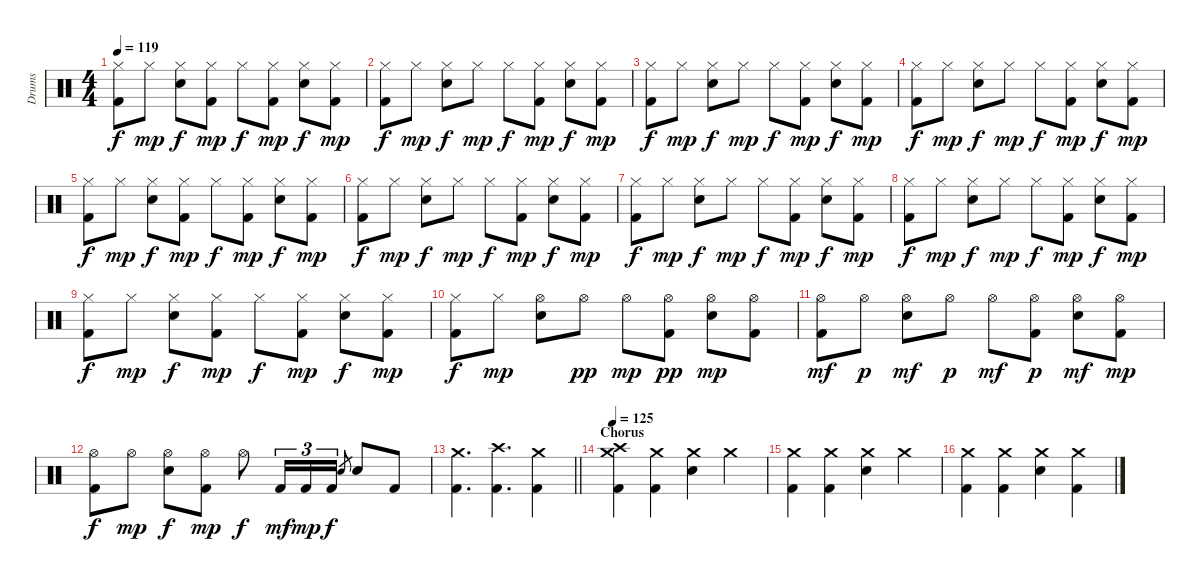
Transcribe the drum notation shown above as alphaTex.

\track ("Drums" "Drums") {instrument percussion}
\staff {score}
\articulation defaults
\ts (4 4)
\tempo 119
\clef neutral
\ks c
("Hi-Hat (closed)" "Kick (hit) 2").8{dy f} "Hi-Hat (closed)".8{dy mp} ("Hi-Hat (closed)" "Electric Snare (hit)").8{dy f} ("Hi-Hat (closed)" "Kick (hit) 2").8{dy mp} "Hi-Hat (closed)".8{dy f} ("Hi-Hat (closed)" "Kick (hit) 2").8{dy mp} ("Hi-Hat (closed)" "Electric Snare (hit)").8{dy f} ("Hi-Hat (closed)" "Kick (hit) 2").8{dy mp} |
("Hi-Hat (closed)" "Kick (hit) 2").8{dy f} "Hi-Hat (closed)".8{dy mp} ("Hi-Hat (closed)" "Electric Snare (hit)").8{dy f} "Hi-Hat (closed)".8{dy mp} "Hi-Hat (closed)".8{dy f} ("Hi-Hat (closed)" "Kick (hit) 2").8{dy mp} ("Hi-Hat (closed)" "Electric Snare (hit)").8{dy f} ("Hi-Hat (closed)" "Kick (hit) 2").8{dy mp} |
("Hi-Hat (closed)" "Kick (hit) 2").8{dy f} "Hi-Hat (closed)".8{dy mp} ("Hi-Hat (closed)" "Electric Snare (hit)").8{dy f} "Hi-Hat (closed)".8{dy mp} "Hi-Hat (closed)".8{dy f} ("Hi-Hat (closed)" "Kick (hit) 2").8{dy mp} ("Hi-Hat (closed)" "Electric Snare (hit)").8{dy f} ("Hi-Hat (closed)" "Kick (hit) 2").8{dy mp} |
("Hi-Hat (closed)" "Kick (hit) 2").8{dy f} "Hi-Hat (closed)".8{dy mp} ("Hi-Hat (closed)" "Electric Snare (hit)").8{dy f} "Hi-Hat (closed)".8{dy mp} "Hi-Hat (closed)".8{dy f} ("Hi-Hat (closed)" "Kick (hit) 2").8{dy mp} ("Hi-Hat (closed)" "Electric Snare (hit)").8{dy f} ("Hi-Hat (closed)" "Kick (hit) 2").8{dy mp} |
("Hi-Hat (closed)" "Kick (hit) 2").8{dy f} "Hi-Hat (closed)".8{dy mp} ("Hi-Hat (closed)" "Electric Snare (hit)").8{dy f} ("Hi-Hat (closed)" "Kick (hit) 2").8{dy mp} "Hi-Hat (closed)".8{dy f} ("Hi-Hat (closed)" "Kick (hit) 2").8{dy mp} ("Hi-Hat (closed)" "Electric Snare (hit)").8{dy f} ("Hi-Hat (closed)" "Kick (hit) 2").8{dy mp} |
("Hi-Hat (closed)" "Kick (hit) 2").8{dy f} "Hi-Hat (closed)".8{dy mp} ("Hi-Hat (closed)" "Electric Snare (hit)").8{dy f} "Hi-Hat (closed)".8{dy mp} "Hi-Hat (closed)".8{dy f} ("Hi-Hat (closed)" "Kick (hit) 2").8{dy mp} ("Hi-Hat (closed)" "Electric Snare (hit)").8{dy f} ("Hi-Hat (closed)" "Kick (hit) 2").8{dy mp} |
("Hi-Hat (closed)" "Kick (hit) 2").8{dy f} "Hi-Hat (closed)".8{dy mp} ("Hi-Hat (closed)" "Electric Snare (hit)").8{dy f} "Hi-Hat (closed)".8{dy mp} "Hi-Hat (closed)".8{dy f} ("Hi-Hat (closed)" "Kick (hit) 2").8{dy mp} ("Hi-Hat (closed)" "Electric Snare (hit)").8{dy f} ("Hi-Hat (closed)" "Kick (hit) 2").8{dy mp} |
("Hi-Hat (closed)" "Kick (hit) 2").8{dy f} "Hi-Hat (closed)".8{dy mp} ("Hi-Hat (closed)" "Electric Snare (hit)").8{dy f} "Hi-Hat (closed)".8{dy mp} "Hi-Hat (closed)".8{dy f} ("Hi-Hat (closed)" "Kick (hit) 2").8{dy mp} ("Hi-Hat (closed)" "Electric Snare (hit)").8{dy f} ("Hi-Hat (closed)" "Kick (hit) 2").8{dy mp} |
("Hi-Hat (closed)" "Kick (hit) 2").8{dy f} "Hi-Hat (closed)".8{dy mp} ("Hi-Hat (closed)" "Electric Snare (hit)").8{dy f} ("Hi-Hat (closed)" "Kick (hit) 2").8{dy mp} "Hi-Hat (closed)".8{dy f} ("Hi-Hat (closed)" "Kick (hit) 2").8{dy mp} ("Hi-Hat (closed)" "Electric Snare (hit)").8{dy f} ("Hi-Hat (closed)" "Kick (hit) 2").8{dy mp} |
("Hi-Hat (closed)" "Kick (hit) 2").8{dy f} "Hi-Hat (closed)".8{dy mp} ("Hi-Hat (open)" "Electric Snare (hit)").8 "Hi-Hat (open)".8{dy pp} "Hi-Hat (open)".8{dy mp} ("Hi-Hat (open)" "Kick (hit) 2").8{dy pp} ("Hi-Hat (open)" "Electric Snare (hit)").8{dy mp} ("Hi-Hat (open)" "Kick (hit) 2").8 |
("Hi-Hat (open)" "Kick (hit) 2").8{dy mf} "Hi-Hat (open)".8{dy p} ("Hi-Hat (open)" "Electric Snare (hit)").8{dy mf} "Hi-Hat (open)".8{dy p} "Hi-Hat (open)".8{dy mf} ("Hi-Hat (open)" "Kick (hit) 2").8{dy p} ("Hi-Hat (open)" "Electric Snare (hit)").8{dy mf} ("Hi-Hat (open)" "Kick (hit) 2").8{dy mp} |
("Hi-Hat (open)" "Kick (hit) 2").8{dy f} "Hi-Hat (open)".8{dy mp} ("Hi-Hat (open)" "Electric Snare (hit)").8{dy f} ("Hi-Hat (open)" "Kick (hit) 2").8{dy mp} "Hi-Hat (open)".8{dy f} "Kick (hit) 2".16{tu (3 2) dy mf} "Kick (hit) 2".16{tu (3 2) dy mp} "Kick (hit) 2".16{tu (3 2) dy f} "Electric Snare (hit)".8{gr} "Electric Snare (hit)".8 "Kick (hit) 2".8 |
\barLineRight lightlight
("Crash medium (hit)" "Kick (hit) 2").4{d} ("Crash high (hit)" "Kick (hit) 2").4{d} ("Crash medium (hit)" "Kick (hit) 2").4 |
\section ("" "Chorus")
\tempo 125
("Crash medium (hit)" "Crash high (hit)" "Kick (hit) 2").4 ("Crash medium (hit)" "Kick (hit) 2").4 ("Crash medium (hit)" "Electric Snare (hit)").4 "Crash medium (hit)".4 |
("Crash medium (hit)" "Kick (hit) 2").4 ("Crash medium (hit)" "Kick (hit) 2").4 ("Crash medium (hit)" "Electric Snare (hit)").4 "Crash medium (hit)".4 |
("Crash medium (hit)" "Kick (hit) 2").4 ("Crash medium (hit)" "Kick (hit) 2").4 ("Crash medium (hit)" "Electric Snare (hit)").4 ("Crash medium (hit)" "Kick (hit) 2").4
